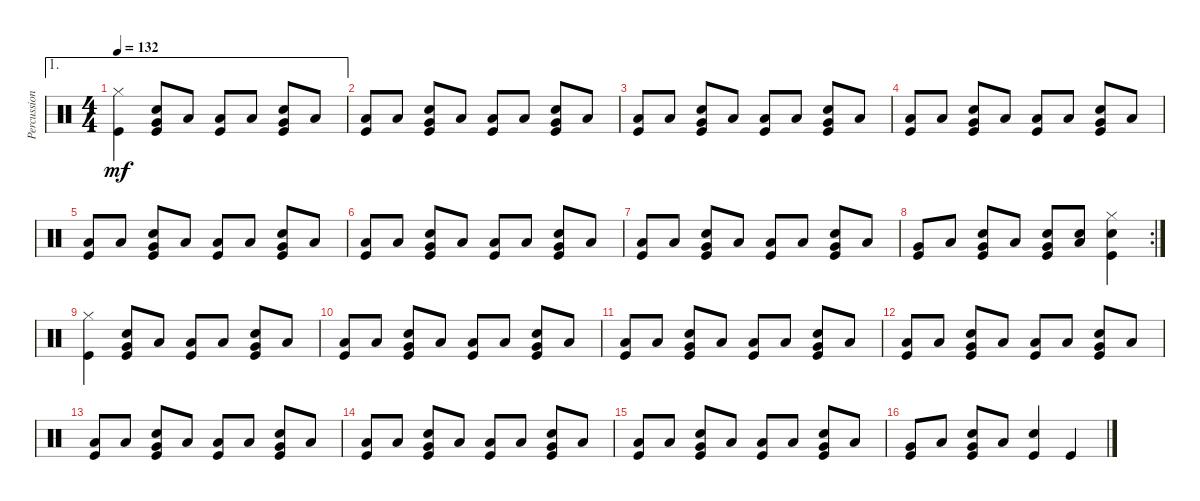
\track ("Percussions" "Percussion") {instrument percussion}
\staff {score}
\articulation defaults
\ae 1
\ts (4 4)
\tempo 132
\clef neutral
\ks c
("Hi-Hat (closed)" "Kick (hit)").4{dy mf} ("Very Low Tom (hit)" "Snare (hit) 2" "Kick (hit)").8 "Low Floor Tom (hit)".8 ("Low Floor Tom (hit)" "Kick (hit)").8 "Low Floor Tom (hit)".8 ("Very Low Tom (hit)" "Snare (hit) 2" "Kick (hit)").8 "Low Floor Tom (hit)".8 |
("Low Floor Tom (hit)" "Kick (hit)").8 "Low Floor Tom (hit)".8 ("Very Low Tom (hit)" "Snare (hit) 2" "Kick (hit)").8 "Low Floor Tom (hit)".8 ("Low Floor Tom (hit)" "Kick (hit)").8 "Low Floor Tom (hit)".8 ("Very Low Tom (hit)" "Snare (hit) 2" "Kick (hit)").8 "Low Floor Tom (hit)".8 |
("Low Floor Tom (hit)" "Kick (hit)").8 "Low Floor Tom (hit)".8 ("Very Low Tom (hit)" "Snare (hit) 2" "Kick (hit)").8 "Low Floor Tom (hit)".8 ("Low Floor Tom (hit)" "Kick (hit)").8 "Low Floor Tom (hit)".8 ("Very Low Tom (hit)" "Snare (hit) 2" "Kick (hit)").8 "Low Floor Tom (hit)".8 |
("Low Floor Tom (hit)" "Kick (hit)").8 "Low Floor Tom (hit)".8 ("Very Low Tom (hit)" "Snare (hit) 2" "Kick (hit)").8 "Low Floor Tom (hit)".8 ("Low Floor Tom (hit)" "Kick (hit)").8 "Low Floor Tom (hit)".8 ("Very Low Tom (hit)" "Snare (hit) 2" "Kick (hit)").8 "Low Floor Tom (hit)".8 |
("Low Floor Tom (hit)" "Kick (hit)").8 "Low Floor Tom (hit)".8 ("Very Low Tom (hit)" "Snare (hit) 2" "Kick (hit)").8 "Low Floor Tom (hit)".8 ("Low Floor Tom (hit)" "Kick (hit)").8 "Low Floor Tom (hit)".8 ("Very Low Tom (hit)" "Snare (hit) 2" "Kick (hit)").8 "Low Floor Tom (hit)".8 |
("Low Floor Tom (hit)" "Kick (hit)").8 "Low Floor Tom (hit)".8 ("Very Low Tom (hit)" "Snare (hit) 2" "Kick (hit)").8 "Low Floor Tom (hit)".8 ("Low Floor Tom (hit)" "Kick (hit)").8 "Low Floor Tom (hit)".8 ("Very Low Tom (hit)" "Snare (hit) 2" "Kick (hit)").8 "Low Floor Tom (hit)".8 |
("Low Floor Tom (hit)" "Kick (hit)").8 "Low Floor Tom (hit)".8 ("Very Low Tom (hit)" "Snare (hit) 2" "Kick (hit)").8 "Low Floor Tom (hit)".8 ("Low Floor Tom (hit)" "Kick (hit)").8 "Low Floor Tom (hit)".8 ("Very Low Tom (hit)" "Snare (hit) 2" "Kick (hit)").8 "Low Floor Tom (hit)".8 |
\rc 2
("Very Low Tom (hit)" "Kick (hit)").8 "Low Floor Tom (hit)".8 ("Very Low Tom (hit)" "Snare (hit) 2" "Kick (hit)").8 "Low Floor Tom (hit)".8 ("Very Low Tom (hit)" "Snare (hit) 2" "Kick (hit)").8 ("Low Floor Tom (hit)" "Snare (hit) 2").8 ("Hi-Hat (closed)" "Snare (hit) 2" "Kick (hit)").4 |
("Hi-Hat (closed)" "Kick (hit)").4 ("Very Low Tom (hit)" "Snare (hit) 2" "Kick (hit)").8 "Low Floor Tom (hit)".8 ("Low Floor Tom (hit)" "Kick (hit)").8 "Low Floor Tom (hit)".8 ("Very Low Tom (hit)" "Snare (hit) 2" "Kick (hit)").8 "Low Floor Tom (hit)".8 |
("Low Floor Tom (hit)" "Kick (hit)").8 "Low Floor Tom (hit)".8 ("Very Low Tom (hit)" "Snare (hit) 2" "Kick (hit)").8 "Low Floor Tom (hit)".8 ("Low Floor Tom (hit)" "Kick (hit)").8 "Low Floor Tom (hit)".8 ("Very Low Tom (hit)" "Snare (hit) 2" "Kick (hit)").8 "Low Floor Tom (hit)".8 |
("Low Floor Tom (hit)" "Kick (hit)").8 "Low Floor Tom (hit)".8 ("Very Low Tom (hit)" "Snare (hit) 2" "Kick (hit)").8 "Low Floor Tom (hit)".8 ("Low Floor Tom (hit)" "Kick (hit)").8 "Low Floor Tom (hit)".8 ("Very Low Tom (hit)" "Snare (hit) 2" "Kick (hit)").8 "Low Floor Tom (hit)".8 |
("Low Floor Tom (hit)" "Kick (hit)").8 "Low Floor Tom (hit)".8 ("Very Low Tom (hit)" "Snare (hit) 2" "Kick (hit)").8 "Low Floor Tom (hit)".8 ("Low Floor Tom (hit)" "Kick (hit)").8 "Low Floor Tom (hit)".8 ("Very Low Tom (hit)" "Snare (hit) 2" "Kick (hit)").8 "Low Floor Tom (hit)".8 |
("Low Floor Tom (hit)" "Kick (hit)").8 "Low Floor Tom (hit)".8 ("Very Low Tom (hit)" "Snare (hit) 2" "Kick (hit)").8 "Low Floor Tom (hit)".8 ("Low Floor Tom (hit)" "Kick (hit)").8 "Low Floor Tom (hit)".8 ("Very Low Tom (hit)" "Snare (hit) 2" "Kick (hit)").8 "Low Floor Tom (hit)".8 |
("Low Floor Tom (hit)" "Kick (hit)").8 "Low Floor Tom (hit)".8 ("Very Low Tom (hit)" "Snare (hit) 2" "Kick (hit)").8 "Low Floor Tom (hit)".8 ("Low Floor Tom (hit)" "Kick (hit)").8 "Low Floor Tom (hit)".8 ("Very Low Tom (hit)" "Snare (hit) 2" "Kick (hit)").8 "Low Floor Tom (hit)".8 |
("Low Floor Tom (hit)" "Kick (hit)").8 "Low Floor Tom (hit)".8 ("Very Low Tom (hit)" "Snare (hit) 2" "Kick (hit)").8 "Low Floor Tom (hit)".8 ("Low Floor Tom (hit)" "Kick (hit)").8 "Low Floor Tom (hit)".8 ("Very Low Tom (hit)" "Snare (hit) 2" "Kick (hit)").8 "Low Floor Tom (hit)".8 |
("Very Low Tom (hit)" "Kick (hit)").8 "Low Floor Tom (hit)".8 ("Very Low Tom (hit)" "Snare (hit) 2" "Kick (hit)").8 "Low Floor Tom (hit)".8 ("Snare (hit) 2" "Kick (hit)").4 "Kick (hit)".4
